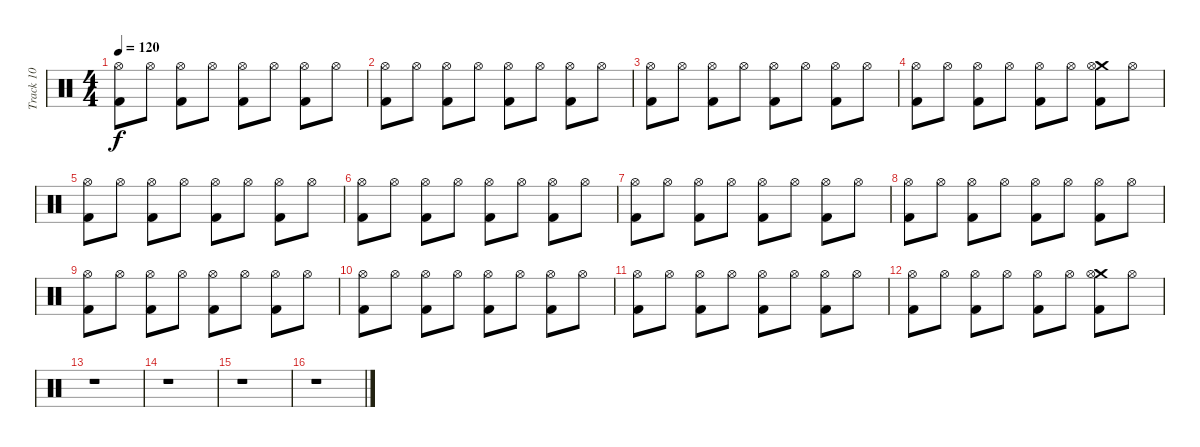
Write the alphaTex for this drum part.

\track ("Track 10" "Track 10") {instrument percussion}
\staff {score}
\articulation defaults
\ts (4 4)
\tempo 120
\clef neutral
\ks c
("Hi-Hat (open)" "Kick (hit) 2").8{dy f} "Hi-Hat (open)".8 ("Hi-Hat (open)" "Kick (hit) 2").8 "Hi-Hat (open)".8 ("Hi-Hat (open)" "Kick (hit) 2").8 "Hi-Hat (open)".8 ("Hi-Hat (open)" "Kick (hit) 2").8 "Hi-Hat (open)".8 |
("Hi-Hat (open)" "Kick (hit) 2").8 "Hi-Hat (open)".8 ("Hi-Hat (open)" "Kick (hit) 2").8 "Hi-Hat (open)".8 ("Hi-Hat (open)" "Kick (hit) 2").8 "Hi-Hat (open)".8 ("Hi-Hat (open)" "Kick (hit) 2").8 "Hi-Hat (open)".8 |
("Hi-Hat (open)" "Kick (hit) 2").8 "Hi-Hat (open)".8 ("Hi-Hat (open)" "Kick (hit) 2").8 "Hi-Hat (open)".8 ("Hi-Hat (open)" "Kick (hit) 2").8 "Hi-Hat (open)".8 ("Hi-Hat (open)" "Kick (hit) 2").8 "Hi-Hat (open)".8 |
("Hi-Hat (open)" "Kick (hit) 2").8 "Hi-Hat (open)".8 ("Hi-Hat (open)" "Kick (hit) 2").8 "Hi-Hat (open)".8 ("Hi-Hat (open)" "Kick (hit) 2").8 "Hi-Hat (open)".8 ("Crash medium (hit)" "Hi-Hat (open)" "Kick (hit) 2").8 "Hi-Hat (open)".8 |
("Hi-Hat (open)" "Kick (hit) 2").8 "Hi-Hat (open)".8 ("Hi-Hat (open)" "Kick (hit) 2").8 "Hi-Hat (open)".8 ("Hi-Hat (open)" "Kick (hit) 2").8 "Hi-Hat (open)".8 ("Hi-Hat (open)" "Kick (hit) 2").8 "Hi-Hat (open)".8 |
("Hi-Hat (open)" "Kick (hit) 2").8 "Hi-Hat (open)".8 ("Hi-Hat (open)" "Kick (hit) 2").8 "Hi-Hat (open)".8 ("Hi-Hat (open)" "Kick (hit) 2").8 "Hi-Hat (open)".8 ("Hi-Hat (open)" "Kick (hit) 2").8 "Hi-Hat (open)".8 |
("Hi-Hat (open)" "Kick (hit) 2").8 "Hi-Hat (open)".8 ("Hi-Hat (open)" "Kick (hit) 2").8 "Hi-Hat (open)".8 ("Hi-Hat (open)" "Kick (hit) 2").8 "Hi-Hat (open)".8 ("Hi-Hat (open)" "Kick (hit) 2").8 "Hi-Hat (open)".8 |
("Hi-Hat (open)" "Kick (hit) 2").8 "Hi-Hat (open)".8 ("Hi-Hat (open)" "Kick (hit) 2").8 "Hi-Hat (open)".8 ("Hi-Hat (open)" "Kick (hit) 2").8 "Hi-Hat (open)".8 ("Hi-Hat (open)" "Kick (hit) 2").8 "Hi-Hat (open)".8 |
("Kick (hit) 2" "Hi-Hat (open)").8 "Hi-Hat (open)".8 ("Hi-Hat (open)" "Kick (hit) 2").8 "Hi-Hat (open)".8 ("Hi-Hat (open)" "Kick (hit) 2").8 "Hi-Hat (open)".8 ("Hi-Hat (open)" "Kick (hit) 2").8 "Hi-Hat (open)".8 |
("Hi-Hat (open)" "Kick (hit) 2").8 "Hi-Hat (open)".8 ("Hi-Hat (open)" "Kick (hit) 2").8 "Hi-Hat (open)".8 ("Hi-Hat (open)" "Kick (hit) 2").8 "Hi-Hat (open)".8 ("Hi-Hat (open)" "Kick (hit) 2").8 "Hi-Hat (open)".8 |
("Hi-Hat (open)" "Kick (hit) 2").8 "Hi-Hat (open)".8 ("Hi-Hat (open)" "Kick (hit) 2").8 "Hi-Hat (open)".8 ("Hi-Hat (open)" "Kick (hit) 2").8 "Hi-Hat (open)".8 ("Hi-Hat (open)" "Kick (hit) 2").8 "Hi-Hat (open)".8 |
("Hi-Hat (open)" "Kick (hit) 2").8 "Hi-Hat (open)".8 ("Hi-Hat (open)" "Kick (hit) 2").8 "Hi-Hat (open)".8 ("Hi-Hat (open)" "Kick (hit) 2").8 "Hi-Hat (open)".8 ("Crash medium (hit)" "Hi-Hat (open)" "Kick (hit) 2").8 "Hi-Hat (open)".8 |
r.1 |
r.1 |
r.1 |
r.1
